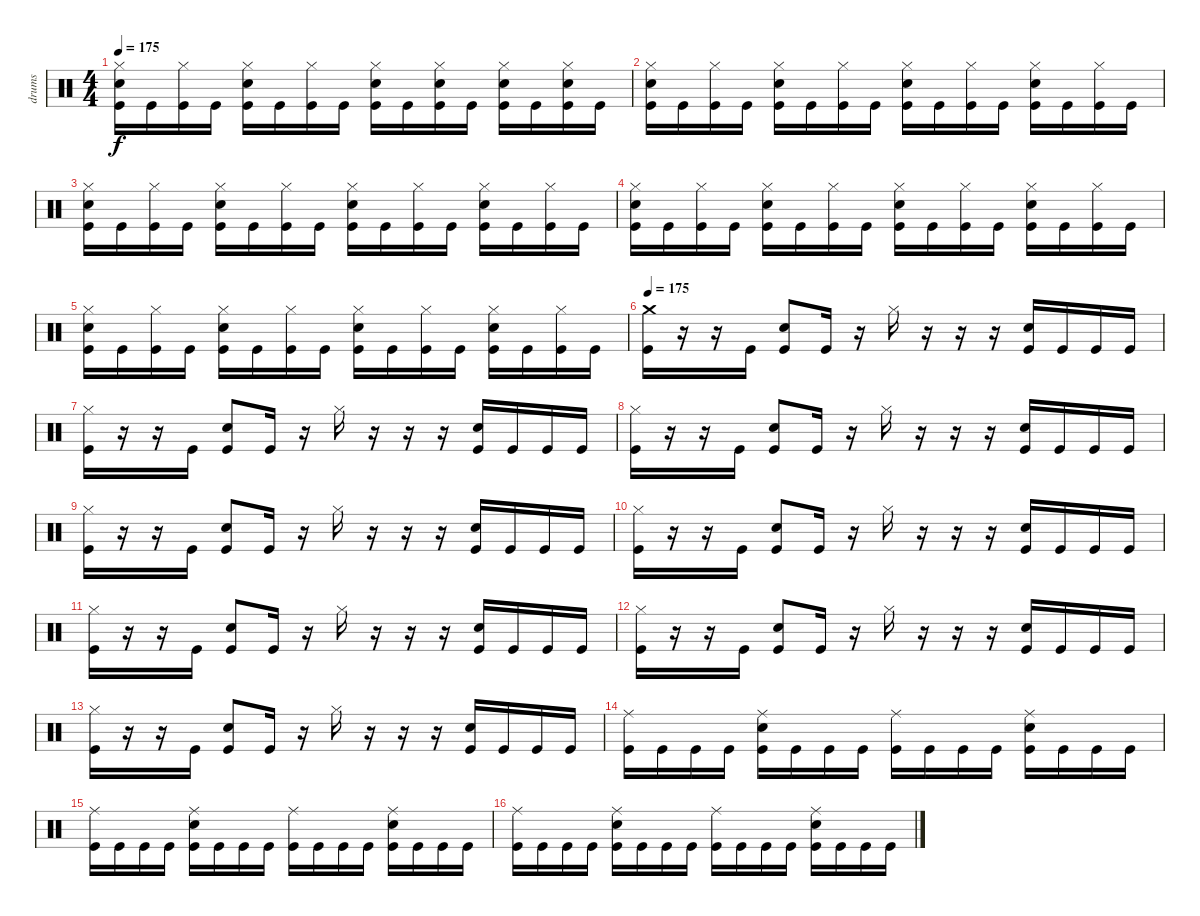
\track ("drums" "drums") {instrument percussion}
\staff {score}
\articulation defaults
\ts (4 4)
\tempo 175
\clef neutral
\ks c
("Hi-Hat (closed)" "Electric Snare (hit)" "Kick (hit)").16{dy f} "Kick (hit)".16 ("Hi-Hat (closed)" "Kick (hit)").16 "Kick (hit)".16 ("Hi-Hat (closed)" "Electric Snare (hit)" "Kick (hit)").16 "Kick (hit)".16 ("Hi-Hat (closed)" "Kick (hit)").16 "Kick (hit)".16 ("Hi-Hat (closed)" "Electric Snare (hit)" "Kick (hit)").16 "Kick (hit)".16 ("Hi-Hat (closed)" "Electric Snare (hit)" "Kick (hit)").16 "Kick (hit)".16 ("Hi-Hat (closed)" "Electric Snare (hit)" "Kick (hit)").16 "Kick (hit)".16 ("Hi-Hat (closed)" "Electric Snare (hit)" "Kick (hit)").16 "Kick (hit)".16 |
("Hi-Hat (closed)" "Electric Snare (hit)" "Kick (hit)").16 "Kick (hit)".16 ("Hi-Hat (closed)" "Kick (hit)").16 "Kick (hit)".16 ("Hi-Hat (closed)" "Electric Snare (hit)" "Kick (hit)").16 "Kick (hit)".16 ("Hi-Hat (closed)" "Kick (hit)").16 "Kick (hit)".16 ("Hi-Hat (closed)" "Electric Snare (hit)" "Kick (hit)").16 "Kick (hit)".16 ("Hi-Hat (closed)" "Kick (hit)").16 "Kick (hit)".16 ("Hi-Hat (closed)" "Electric Snare (hit)" "Kick (hit)").16 "Kick (hit)".16 ("Hi-Hat (closed)" "Kick (hit)").16 "Kick (hit)".16 |
("Hi-Hat (closed)" "Electric Snare (hit)" "Kick (hit)").16 "Kick (hit)".16 ("Hi-Hat (closed)" "Kick (hit)").16 "Kick (hit)".16 ("Hi-Hat (closed)" "Electric Snare (hit)" "Kick (hit)").16 "Kick (hit)".16 ("Hi-Hat (closed)" "Kick (hit)").16 "Kick (hit)".16 ("Hi-Hat (closed)" "Electric Snare (hit)" "Kick (hit)").16 "Kick (hit)".16 ("Hi-Hat (closed)" "Kick (hit)").16 "Kick (hit)".16 ("Hi-Hat (closed)" "Electric Snare (hit)" "Kick (hit)").16 "Kick (hit)".16 ("Hi-Hat (closed)" "Kick (hit)").16 "Kick (hit)".16 |
("Hi-Hat (closed)" "Electric Snare (hit)" "Kick (hit)").16 "Kick (hit)".16 ("Hi-Hat (closed)" "Kick (hit)").16 "Kick (hit)".16 ("Hi-Hat (closed)" "Electric Snare (hit)" "Kick (hit)").16 "Kick (hit)".16 ("Hi-Hat (closed)" "Kick (hit)").16 "Kick (hit)".16 ("Hi-Hat (closed)" "Electric Snare (hit)" "Kick (hit)").16 "Kick (hit)".16 ("Hi-Hat (closed)" "Kick (hit)").16 "Kick (hit)".16 ("Hi-Hat (closed)" "Electric Snare (hit)" "Kick (hit)").16 "Kick (hit)".16 ("Hi-Hat (closed)" "Kick (hit)").16 "Kick (hit)".16 |
("Hi-Hat (closed)" "Electric Snare (hit)" "Kick (hit)").16 "Kick (hit)".16 ("Hi-Hat (closed)" "Kick (hit)").16 "Kick (hit)".16 ("Hi-Hat (closed)" "Electric Snare (hit)" "Kick (hit)").16 "Kick (hit)".16 ("Hi-Hat (closed)" "Kick (hit)").16 "Kick (hit)".16 ("Hi-Hat (closed)" "Electric Snare (hit)" "Kick (hit)").16 "Kick (hit)".16 ("Hi-Hat (closed)" "Kick (hit)").16 "Kick (hit)".16 ("Hi-Hat (closed)" "Electric Snare (hit)" "Kick (hit)").16 "Kick (hit)".16 ("Hi-Hat (closed)" "Kick (hit)").16 "Kick (hit)".16 |
\tempo 175
("Crash medium (hit)" "Kick (hit)").16 r.16 r.16 "Kick (hit)".16 ("Electric Snare (hit)" "Kick (hit)").8 "Kick (hit)".16 r.16 "Hi-Hat (closed)".16 r.16 r.16 r.16 ("Electric Snare (hit)" "Kick (hit)").16 "Kick (hit)".16 "Kick (hit)".16 "Kick (hit)".16 |
("Hi-Hat (closed)" "Kick (hit)").16 r.16 r.16 "Kick (hit)".16 ("Electric Snare (hit)" "Kick (hit)").8 "Kick (hit)".16 r.16 "Hi-Hat (closed)".16 r.16 r.16 r.16 ("Electric Snare (hit)" "Kick (hit)").16 "Kick (hit)".16 "Kick (hit)".16 "Kick (hit)".16 |
("Hi-Hat (closed)" "Kick (hit)").16 r.16 r.16 "Kick (hit)".16 ("Electric Snare (hit)" "Kick (hit)").8 "Kick (hit)".16 r.16 "Hi-Hat (closed)".16 r.16 r.16 r.16 ("Electric Snare (hit)" "Kick (hit)").16 "Kick (hit)".16 "Kick (hit)".16 "Kick (hit)".16 |
("Hi-Hat (closed)" "Kick (hit)").16 r.16 r.16 "Kick (hit)".16 ("Electric Snare (hit)" "Kick (hit)").8 "Kick (hit)".16 r.16 "Hi-Hat (closed)".16 r.16 r.16 r.16 ("Electric Snare (hit)" "Kick (hit)").16 "Kick (hit)".16 "Kick (hit)".16 "Kick (hit)".16 |
("Hi-Hat (closed)" "Kick (hit)").16 r.16 r.16 "Kick (hit)".16 ("Electric Snare (hit)" "Kick (hit)").8 "Kick (hit)".16 r.16 "Hi-Hat (closed)".16 r.16 r.16 r.16 ("Electric Snare (hit)" "Kick (hit)").16 "Kick (hit)".16 "Kick (hit)".16 "Kick (hit)".16 |
("Hi-Hat (closed)" "Kick (hit)").16 r.16 r.16 "Kick (hit)".16 ("Electric Snare (hit)" "Kick (hit)").8 "Kick (hit)".16 r.16 "Hi-Hat (closed)".16 r.16 r.16 r.16 ("Electric Snare (hit)" "Kick (hit)").16 "Kick (hit)".16 "Kick (hit)".16 "Kick (hit)".16 |
("Hi-Hat (closed)" "Kick (hit)").16 r.16 r.16 "Kick (hit)".16 ("Electric Snare (hit)" "Kick (hit)").8 "Kick (hit)".16 r.16 "Hi-Hat (closed)".16 r.16 r.16 r.16 ("Electric Snare (hit)" "Kick (hit)").16 "Kick (hit)".16 "Kick (hit)".16 "Kick (hit)".16 |
("Hi-Hat (closed)" "Kick (hit)").16 r.16 r.16 "Kick (hit)".16 ("Electric Snare (hit)" "Kick (hit)").8 "Kick (hit)".16 r.16 "Hi-Hat (closed)".16 r.16 r.16 r.16 ("Electric Snare (hit)" "Kick (hit)").16 "Kick (hit)".16 "Kick (hit)".16 "Kick (hit)".16 |
("Ride (middle)" "Kick (hit)").16 "Kick (hit)".16 "Kick (hit)".16 "Kick (hit)".16 ("Ride (middle)" "Electric Snare (hit)" "Kick (hit)").16 "Kick (hit)".16 "Kick (hit)".16 "Kick (hit)".16 ("Ride (middle)" "Kick (hit)").16 "Kick (hit)".16 "Kick (hit)".16 "Kick (hit)".16 ("Ride (middle)" "Electric Snare (hit)" "Kick (hit)").16 "Kick (hit)".16 "Kick (hit)".16 "Kick (hit)".16 |
("Ride (middle)" "Kick (hit)").16 "Kick (hit)".16 "Kick (hit)".16 "Kick (hit)".16 ("Ride (middle)" "Electric Snare (hit)" "Kick (hit)").16 "Kick (hit)".16 "Kick (hit)".16 "Kick (hit)".16 ("Ride (middle)" "Kick (hit)").16 "Kick (hit)".16 "Kick (hit)".16 "Kick (hit)".16 ("Ride (middle)" "Electric Snare (hit)" "Kick (hit)").16 "Kick (hit)".16 "Kick (hit)".16 "Kick (hit)".16 |
("Ride (middle)" "Kick (hit)").16 "Kick (hit)".16 "Kick (hit)".16 "Kick (hit)".16 ("Ride (middle)" "Electric Snare (hit)" "Kick (hit)").16 "Kick (hit)".16 "Kick (hit)".16 "Kick (hit)".16 ("Ride (middle)" "Kick (hit)").16 "Kick (hit)".16 "Kick (hit)".16 "Kick (hit)".16 ("Ride (middle)" "Electric Snare (hit)" "Kick (hit)").16 "Kick (hit)".16 "Kick (hit)".16 "Kick (hit)".16
